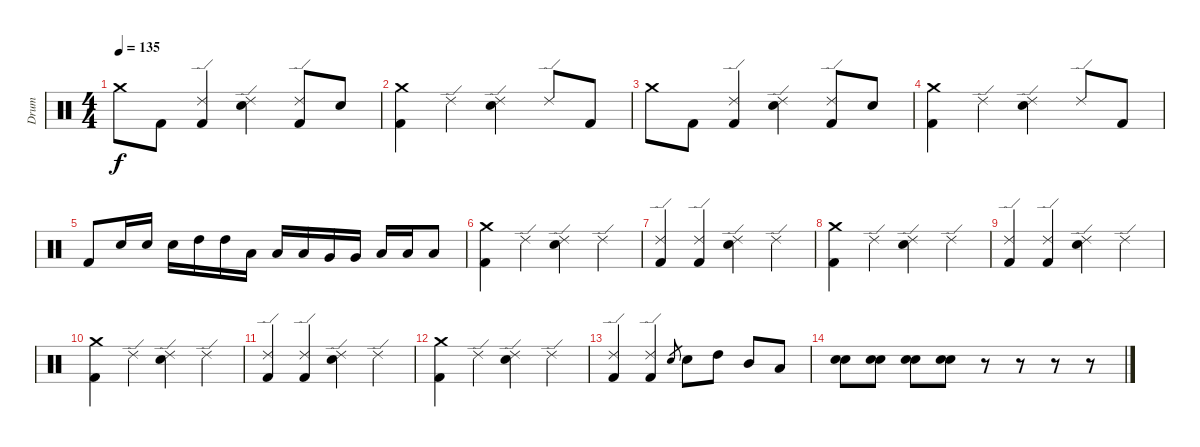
\track ("Drum" "Drum") {instrument percussion}
\staff {score}
\articulation defaults
\ts (4 4)
\tempo 135
\clef neutral
\ks c "Crash medium (hit)".8{dy f} "Kick (hit) 2".8
("Ride (edge) 2" "Kick (hit) 2").4 ("Ride (edge) 2" "Electric Snare (hit)").4 ("Ride (edge) 2" "Kick (hit) 2").8 "Electric Snare (hit)".8 |
("Crash medium (hit)" "Kick (hit) 2").4 "Ride (edge) 2".4 ("Ride (edge) 2" "Electric Snare (hit)").4 "Ride (edge) 2".8 "Kick (hit) 2".8 |
"Crash medium (hit)".8 "Kick (hit) 2".8 ("Ride (edge) 2" "Kick (hit) 2").4 ("Ride (edge) 2" "Electric Snare (hit)").4 ("Ride (edge) 2" "Kick (hit) 2").8 "Electric Snare (hit)".8 |
("Crash medium (hit)" "Kick (hit) 2").4 "Ride (edge) 2".4 ("Ride (edge) 2" "Electric Snare (hit)").4 "Ride (edge) 2".8 "Kick (hit) 2".8 |
"Kick (hit) 2".8 "Electric Snare (hit)".16 "Electric Snare (hit)".16 "Electric Snare (hit)".16 "High Tom (hit)".16 "High Tom (hit)".16 "Low Tom (hit)".16 "Low Tom (hit)".16 "Low Tom (hit)".16 "Very Low Tom (hit)".16 "Very Low Tom (hit)".16 "Low Floor Tom (hit)".16 "Low Floor Tom (hit)".16 "Low Floor Tom (hit)".8 |
("Crash medium (hit)" "Kick (hit) 2").4 "Ride (edge) 2".4 ("Ride (edge) 2" "Electric Snare (hit)").4 "Ride (edge) 2".4 |
("Ride (edge) 2" "Kick (hit) 2").4 ("Ride (edge) 2" "Kick (hit) 2").4 ("Ride (edge) 2" "Electric Snare (hit)").4 "Ride (edge) 2".4 |
("Crash medium (hit)" "Kick (hit) 2").4 "Ride (edge) 2".4 ("Ride (edge) 2" "Electric Snare (hit)").4 "Ride (edge) 2".4 |
("Ride (edge) 2" "Kick (hit) 2").4 ("Ride (edge) 2" "Kick (hit) 2").4 ("Ride (edge) 2" "Electric Snare (hit)").4 "Ride (edge) 2".4 |
("Crash medium (hit)" "Kick (hit) 2").4 "Ride (edge) 2".4 ("Ride (edge) 2" "Electric Snare (hit)").4 "Ride (edge) 2".4 |
("Ride (edge) 2" "Kick (hit) 2").4 ("Ride (edge) 2" "Kick (hit) 2").4 ("Ride (edge) 2" "Electric Snare (hit)").4 "Ride (edge) 2".4 |
("Crash medium (hit)" "Kick (hit) 2").4 "Ride (edge) 2".4 ("Ride (edge) 2" "Electric Snare (hit)").4 "Ride (edge) 2".4 |
("Ride (edge) 2" "Kick (hit) 2").4 ("Ride (edge) 2" "Kick (hit) 2").4 "Electric Snare (hit)".8{gr} "Electric Snare (hit)".8 "High Tom (hit)".8 "Mid Tom (hit)".8 "Low Tom (hit)".8 |
("Electric Snare (hit)" "Electric Snare (hit)").8 ("Electric Snare (hit)" "Electric Snare (hit)").8 ("Electric Snare (hit)" "Electric Snare (hit)").8 ("Electric Snare (hit)" "Electric Snare (hit)").8 r.8 r.8 r.8 r.8
